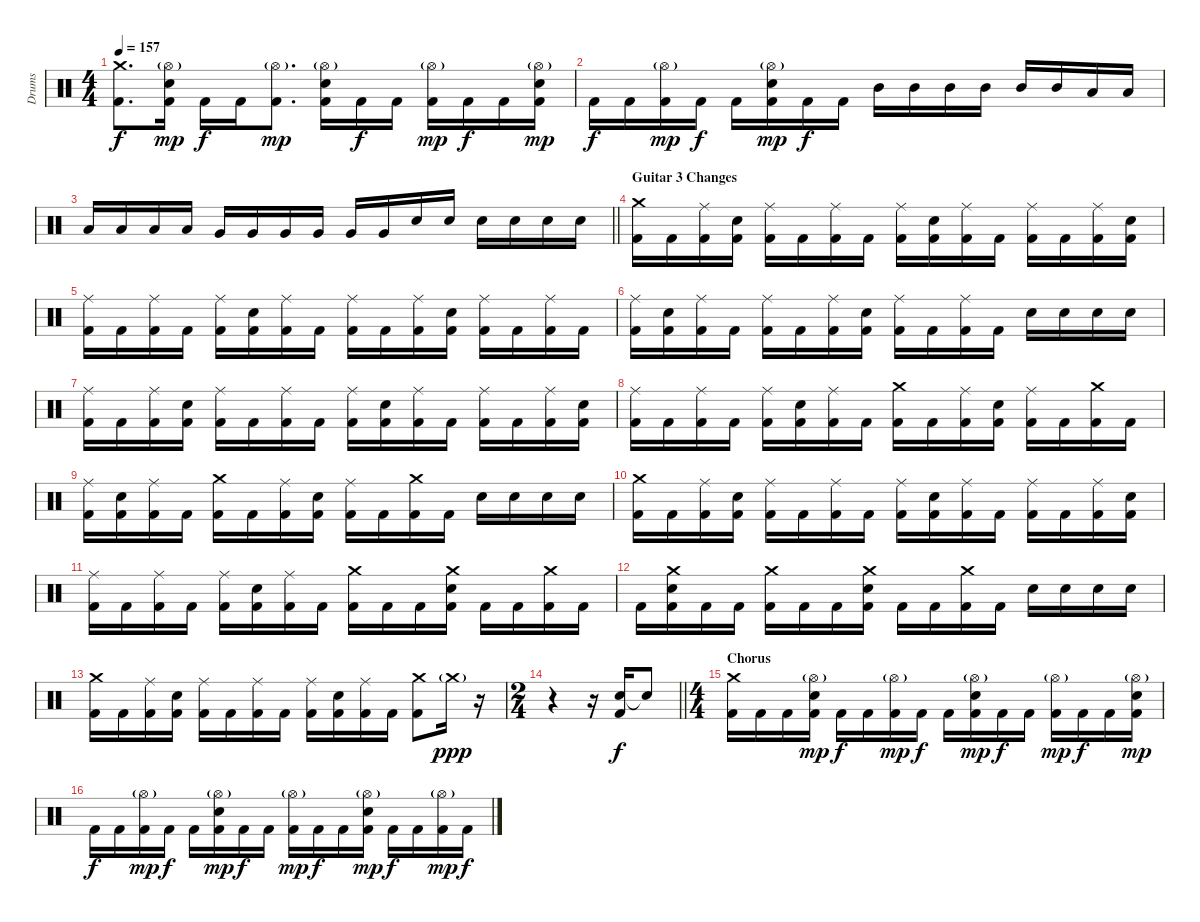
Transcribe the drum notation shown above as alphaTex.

\track ("Drums" "Drums") {instrument percussion}
\staff {score}
\articulation defaults
\ts (4 4)
\tempo 157
\clef neutral
\ks c
("Crash medium (hit)" "Kick (hit) 2").8{d dy f} ("Snare (hit) 2" "Hi-Hat (open)"{g} "Kick (hit) 2").16{dy mp} "Kick (hit) 2".16{dy f} "Kick (hit) 2".16 ("Hi-Hat (open)"{g} "Kick (hit) 2").8{d dy mp} ("Snare (hit) 2" "Hi-Hat (open)"{g} "Kick (hit) 2").16 "Kick (hit) 2".16{dy f} "Kick (hit) 2".16 ("Hi-Hat (open)"{g} "Kick (hit) 2").16{dy mp} "Kick (hit) 2".16{dy f} "Kick (hit) 2".16 ("Snare (hit) 2" "Hi-Hat (open)"{g} "Kick (hit) 2").16{dy mp} |
"Kick (hit) 2".16{dy f} "Kick (hit) 2".16 ("Hi-Hat (open)"{g} "Kick (hit) 2").16{dy mp} "Kick (hit) 2".16{dy f} "Kick (hit) 2".16 ("Snare (hit) 2" "Hi-Hat (open)"{g} "Kick (hit) 2").16{dy mp} "Kick (hit) 2".16{dy f} "Kick (hit) 2".16 "Mid Tom (hit)".16 "Mid Tom (hit)".16 "Mid Tom (hit)".16 "Mid Tom (hit)".16 "Mid Tom (hit)".16 "Mid Tom (hit)".16 "Low Tom (hit)".16 "Low Tom (hit)".16 |
\barLineRight lightlight "Low Tom (hit)".16 "Low Tom (hit)".16 "Low Tom (hit)".16 "Low Tom (hit)".16 "Very Low Tom (hit)".16 "Very Low Tom (hit)".16 "Very Low Tom (hit)".16 "Very Low Tom (hit)".16 "Very Low Tom (hit)".16 "Very Low Tom (hit)".16 "Snare (hit) 2".16 "Snare (hit) 2".16 "Snare (hit) 2".16 "Snare (hit) 2".16 "Snare (hit) 2".16 "Snare (hit) 2".16
|
\section ("" "Guitar 3 Changes")
("Crash medium (hit)" "Kick (hit) 2").16 "Kick (hit) 2".16 ("Ride (middle)" "Kick (hit) 2").16 ("Snare (hit) 2" "Kick (hit) 2").16 ("Ride (middle)" "Kick (hit) 2").16 "Kick (hit) 2".16 ("Ride (middle)" "Kick (hit) 2").16 "Kick (hit) 2".16 ("Ride (middle)" "Kick (hit) 2").16 ("Snare (hit) 2" "Kick (hit) 2").16 ("Ride (middle)" "Kick (hit) 2").16 "Kick (hit) 2".16 ("Ride (middle)" "Kick (hit) 2").16 "Kick (hit) 2".16 ("Ride (middle)" "Kick (hit) 2").16 ("Snare (hit) 2" "Kick (hit) 2").16 |
("Ride (middle)" "Kick (hit) 2").16 "Kick (hit) 2".16 ("Ride (middle)" "Kick (hit) 2").16 "Kick (hit) 2".16 ("Ride (middle)" "Kick (hit) 2").16 ("Snare (hit) 2" "Kick (hit) 2").16 ("Ride (middle)" "Kick (hit) 2").16 "Kick (hit) 2".16 ("Ride (middle)" "Kick (hit) 2").16 "Kick (hit) 2".16 ("Ride (middle)" "Kick (hit) 2").16 ("Snare (hit) 2" "Kick (hit) 2").16 ("Ride (middle)" "Kick (hit) 2").16 "Kick (hit) 2".16 ("Ride (middle)" "Kick (hit) 2").16 "Kick (hit) 2".16 |
("Ride (middle)" "Kick (hit) 2").16 ("Snare (hit) 2" "Kick (hit) 2").16 ("Ride (middle)" "Kick (hit) 2").16 "Kick (hit) 2".16 ("Ride (middle)" "Kick (hit) 2").16 "Kick (hit) 2".16 ("Ride (middle)" "Kick (hit) 2").16 ("Snare (hit) 2" "Kick (hit) 2").16 ("Ride (middle)" "Kick (hit) 2").16 "Kick (hit) 2".16 ("Ride (middle)" "Kick (hit) 2").16 "Kick (hit) 2".16 "Snare (hit) 2".16 "Snare (hit) 2".16 "Snare (hit) 2".16 "Snare (hit) 2".16 |
("Ride (middle)" "Kick (hit) 2").16 "Kick (hit) 2".16 ("Ride (middle)" "Kick (hit) 2").16 ("Snare (hit) 2" "Kick (hit) 2").16 ("Ride (middle)" "Kick (hit) 2").16 "Kick (hit) 2".16 ("Ride (middle)" "Kick (hit) 2").16 "Kick (hit) 2".16 ("Ride (middle)" "Kick (hit) 2").16 ("Snare (hit) 2" "Kick (hit) 2").16 ("Ride (middle)" "Kick (hit) 2").16 "Kick (hit) 2".16 ("Ride (middle)" "Kick (hit) 2").16 "Kick (hit) 2".16 ("Ride (middle)" "Kick (hit) 2").16 ("Snare (hit) 2" "Kick (hit) 2").16 |
("Ride (middle)" "Kick (hit) 2").16 "Kick (hit) 2".16 ("Ride (middle)" "Kick (hit) 2").16 "Kick (hit) 2".16 ("Ride (middle)" "Kick (hit) 2").16 ("Snare (hit) 2" "Kick (hit) 2").16 ("Ride (middle)" "Kick (hit) 2").16 "Kick (hit) 2".16 ("Crash medium (hit)" "Kick (hit) 2").16 "Kick (hit) 2".16 ("Ride (middle)" "Kick (hit) 2").16 ("Snare (hit) 2" "Kick (hit) 2").16 ("Ride (middle)" "Kick (hit) 2").16 "Kick (hit) 2".16 ("Crash medium (hit)" "Kick (hit) 2").16 "Kick (hit) 2".16 |
("Ride (middle)" "Kick (hit) 2").16 ("Snare (hit) 2" "Kick (hit) 2").16 ("Ride (middle)" "Kick (hit) 2").16 "Kick (hit) 2".16 ("Crash medium (hit)" "Kick (hit) 2").16 "Kick (hit) 2".16 ("Ride (middle)" "Kick (hit) 2").16 ("Snare (hit) 2" "Kick (hit) 2").16 ("Ride (middle)" "Kick (hit) 2").16 "Kick (hit) 2".16 ("Crash medium (hit)" "Kick (hit) 2").16 "Kick (hit) 2".16 "Snare (hit) 2".16 "Snare (hit) 2".16 "Snare (hit) 2".16 "Snare (hit) 2".16 |
("Crash medium (hit)" "Kick (hit) 2").16 "Kick (hit) 2".16 ("Ride (middle)" "Kick (hit) 2").16 ("Snare (hit) 2" "Kick (hit) 2").16 ("Ride (middle)" "Kick (hit) 2").16 "Kick (hit) 2".16 ("Ride (middle)" "Kick (hit) 2").16 "Kick (hit) 2".16 ("Ride (middle)" "Kick (hit) 2").16 ("Snare (hit) 2" "Kick (hit) 2").16 ("Ride (middle)" "Kick (hit) 2").16 "Kick (hit) 2".16 ("Ride (middle)" "Kick (hit) 2").16 "Kick (hit) 2".16 ("Ride (middle)" "Kick (hit) 2").16 ("Snare (hit) 2" "Kick (hit) 2").16 |
("Ride (middle)" "Kick (hit) 2").16 "Kick (hit) 2".16 ("Ride (middle)" "Kick (hit) 2").16 "Kick (hit) 2".16 ("Ride (middle)" "Kick (hit) 2").16 ("Snare (hit) 2" "Kick (hit) 2").16 ("Ride (middle)" "Kick (hit) 2").16 "Kick (hit) 2".16 ("Crash medium (hit)" "Kick (hit) 2").16 "Kick (hit) 2".16 "Kick (hit) 2".16 ("Crash medium (hit)" "Snare (hit) 2" "Kick (hit) 2").16 "Kick (hit) 2".16 "Kick (hit) 2".16 ("Crash medium (hit)" "Kick (hit) 2").16 "Kick (hit) 2".16 |
"Kick (hit) 2".16 ("Crash medium (hit)" "Snare (hit) 2" "Kick (hit) 2").16 "Kick (hit) 2".16 "Kick (hit) 2".16 ("Crash medium (hit)" "Kick (hit) 2").16 "Kick (hit) 2".16 "Kick (hit) 2".16 ("Crash medium (hit)" "Snare (hit) 2" "Kick (hit) 2").16 "Kick (hit) 2".16 "Kick (hit) 2".16 ("Crash medium (hit)" "Kick (hit) 2").16 "Kick (hit) 2".16 "Snare (hit) 2".16 "Snare (hit) 2".16 "Snare (hit) 2".16 "Snare (hit) 2".16 |
("Crash medium (hit)" "Kick (hit) 2").16 "Kick (hit) 2".16 ("Ride (middle)" "Kick (hit) 2").16 ("Snare (hit) 2" "Kick (hit) 2").16 ("Ride (middle)" "Kick (hit) 2").16 "Kick (hit) 2".16 ("Ride (middle)" "Kick (hit) 2").16 "Kick (hit) 2".16 ("Ride (middle)" "Kick (hit) 2").16 ("Snare (hit) 2" "Kick (hit) 2").16 ("Ride (middle)" "Kick (hit) 2").16 "Kick (hit) 2".16 ("Crash medium (hit)" "Kick (hit) 2").8 "Crash medium (hit)"{g}.16{dy ppp} r.16 |
\ts (2 4)
\barLineRight lightlight
r.4 r.16 ("Snare (hit) 2" "Kick (hit) 2").16{dy f} "Snare (hit) 2"{t}.8 |
\ts (4 4)
\section ("" "Chorus")
("Crash medium (hit)" "Kick (hit) 2").16 "Kick (hit) 2".16 "Kick (hit) 2".16 ("Snare (hit) 2" "Hi-Hat (open)"{g} "Kick (hit) 2").16{dy mp} "Kick (hit) 2".16{dy f} "Kick (hit) 2".16 ("Hi-Hat (open)"{g} "Kick (hit) 2").16{dy mp} "Kick (hit) 2".16{dy f} "Kick (hit) 2".16 ("Snare (hit) 2" "Hi-Hat (open)"{g} "Kick (hit) 2").16{dy mp} "Kick (hit) 2".16{dy f} "Kick (hit) 2".16 ("Hi-Hat (open)"{g} "Kick (hit) 2").16{dy mp} "Kick (hit) 2".16{dy f} "Kick (hit) 2".16 ("Snare (hit) 2" "Hi-Hat (open)"{g} "Kick (hit) 2").16{dy mp} |
"Kick (hit) 2".16{dy f} "Kick (hit) 2".16 ("Hi-Hat (open)"{g} "Kick (hit) 2").16{dy mp} "Kick (hit) 2".16{dy f} "Kick (hit) 2".16 ("Snare (hit) 2" "Hi-Hat (open)"{g} "Kick (hit) 2").16{dy mp} "Kick (hit) 2".16{dy f} "Kick (hit) 2".16 ("Hi-Hat (open)"{g} "Kick (hit) 2").16{dy mp} "Kick (hit) 2".16{dy f} "Kick (hit) 2".16 ("Snare (hit) 2" "Hi-Hat (open)"{g} "Kick (hit) 2").16{dy mp} "Kick (hit) 2".16{dy f} "Kick (hit) 2".16 ("Hi-Hat (open)"{g} "Kick (hit) 2").16{dy mp} "Kick (hit) 2".16{dy f}
